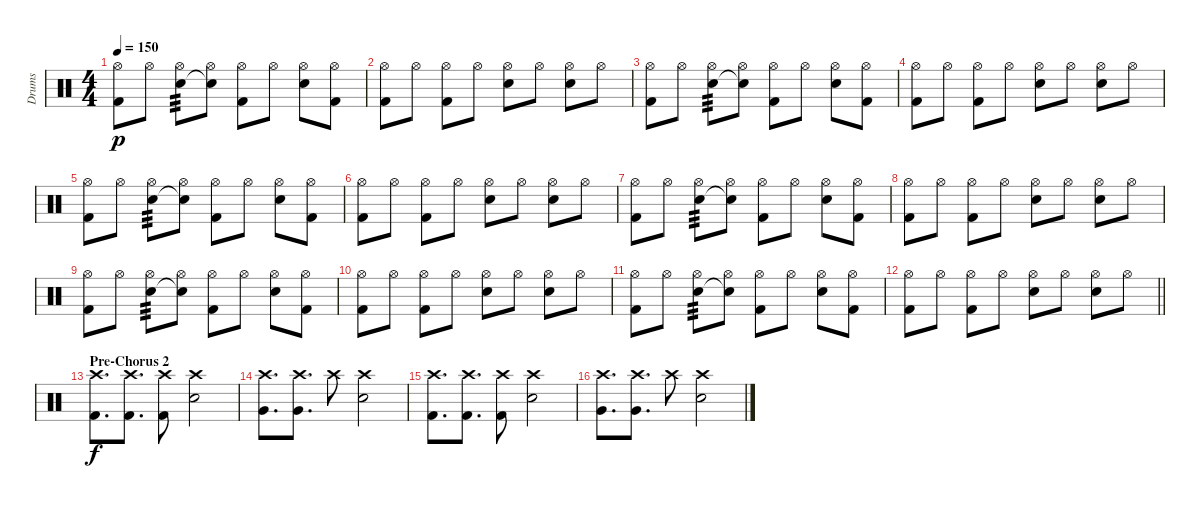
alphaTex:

\track ("Drums" "Drums") {instrument percussion}
\staff {score}
\articulation defaults
\ts (4 4)
\tempo 150
\clef neutral
\ks c
("Hi-Hat (open)" "Kick (hit) 2").8{dy p} "Hi-Hat (open)".8 ("Hi-Hat (open)" "Electric Snare (hit)").8{tp 3} ("Hi-Hat (open)" "Electric Snare (hit)"{t}).8 ("Hi-Hat (open)" "Kick (hit) 2").8 "Hi-Hat (open)".8 ("Hi-Hat (open)" "Electric Snare (hit)").8 ("Hi-Hat (open)" "Kick (hit) 2").8 |
("Hi-Hat (open)" "Kick (hit) 2").8 "Hi-Hat (open)".8 ("Hi-Hat (open)" "Kick (hit) 2").8 "Hi-Hat (open)".8 ("Hi-Hat (open)" "Electric Snare (hit)").8 "Hi-Hat (open)".8 ("Hi-Hat (open)" "Electric Snare (hit)").8 "Hi-Hat (open)".8 |
("Hi-Hat (open)" "Kick (hit) 2").8 "Hi-Hat (open)".8 ("Hi-Hat (open)" "Electric Snare (hit)").8{tp 3} ("Hi-Hat (open)" "Electric Snare (hit)"{t}).8 ("Hi-Hat (open)" "Kick (hit) 2").8 "Hi-Hat (open)".8 ("Hi-Hat (open)" "Electric Snare (hit)").8 ("Hi-Hat (open)" "Kick (hit) 2").8 |
("Hi-Hat (open)" "Kick (hit) 2").8 "Hi-Hat (open)".8 ("Hi-Hat (open)" "Kick (hit) 2").8 "Hi-Hat (open)".8 ("Hi-Hat (open)" "Electric Snare (hit)").8 "Hi-Hat (open)".8 ("Hi-Hat (open)" "Electric Snare (hit)").8 "Hi-Hat (open)".8 |
("Hi-Hat (open)" "Kick (hit) 2").8 "Hi-Hat (open)".8 ("Hi-Hat (open)" "Electric Snare (hit)").8{tp 3} ("Hi-Hat (open)" "Electric Snare (hit)"{t}).8 ("Hi-Hat (open)" "Kick (hit) 2").8 "Hi-Hat (open)".8 ("Hi-Hat (open)" "Electric Snare (hit)").8 ("Hi-Hat (open)" "Kick (hit) 2").8 |
("Hi-Hat (open)" "Kick (hit) 2").8 "Hi-Hat (open)".8 ("Hi-Hat (open)" "Kick (hit) 2").8 "Hi-Hat (open)".8 ("Hi-Hat (open)" "Electric Snare (hit)").8 "Hi-Hat (open)".8 ("Hi-Hat (open)" "Electric Snare (hit)").8 "Hi-Hat (open)".8 |
("Hi-Hat (open)" "Kick (hit) 2").8 "Hi-Hat (open)".8 ("Hi-Hat (open)" "Electric Snare (hit)").8{tp 3} ("Hi-Hat (open)" "Electric Snare (hit)"{t}).8 ("Hi-Hat (open)" "Kick (hit) 2").8 "Hi-Hat (open)".8 ("Hi-Hat (open)" "Electric Snare (hit)").8 ("Hi-Hat (open)" "Kick (hit) 2").8 |
("Hi-Hat (open)" "Kick (hit) 2").8 "Hi-Hat (open)".8 ("Hi-Hat (open)" "Kick (hit) 2").8 "Hi-Hat (open)".8 ("Hi-Hat (open)" "Electric Snare (hit)").8 "Hi-Hat (open)".8 ("Hi-Hat (open)" "Electric Snare (hit)").8 "Hi-Hat (open)".8 |
("Hi-Hat (open)" "Kick (hit) 2").8 "Hi-Hat (open)".8 ("Hi-Hat (open)" "Electric Snare (hit)").8{tp 3} ("Hi-Hat (open)" "Electric Snare (hit)"{t}).8 ("Hi-Hat (open)" "Kick (hit) 2").8 "Hi-Hat (open)".8 ("Hi-Hat (open)" "Electric Snare (hit)").8 ("Hi-Hat (open)" "Kick (hit) 2").8 |
("Hi-Hat (open)" "Kick (hit) 2").8 "Hi-Hat (open)".8 ("Hi-Hat (open)" "Kick (hit) 2").8 "Hi-Hat (open)".8 ("Hi-Hat (open)" "Electric Snare (hit)").8 "Hi-Hat (open)".8 ("Hi-Hat (open)" "Electric Snare (hit)").8 "Hi-Hat (open)".8 |
("Hi-Hat (open)" "Kick (hit) 2").8 "Hi-Hat (open)".8 ("Hi-Hat (open)" "Electric Snare (hit)").8{tp 3} ("Hi-Hat (open)" "Electric Snare (hit)"{t}).8 ("Hi-Hat (open)" "Kick (hit) 2").8 "Hi-Hat (open)".8 ("Hi-Hat (open)" "Electric Snare (hit)").8 ("Hi-Hat (open)" "Kick (hit) 2").8 |
\barLineRight lightlight
("Hi-Hat (open)" "Kick (hit) 2").8 "Hi-Hat (open)".8 ("Hi-Hat (open)" "Kick (hit) 2").8 "Hi-Hat (open)".8 ("Hi-Hat (open)" "Electric Snare (hit)").8 "Hi-Hat (open)".8 ("Hi-Hat (open)" "Electric Snare (hit)").8 "Hi-Hat (open)".8 |
\section ("" "Pre-Chorus 2")
("Crash high (hit)" "Kick (hit) 2").8{d dy f} ("Crash high (hit)" "Kick (hit) 2").8{d} ("Crash high (hit)" "Kick (hit) 2").8 ("Crash high (hit)" "Electric Snare (hit)").2 |
("Crash high (hit)" "Very Low Tom (hit)").8{d} ("Crash high (hit)" "Very Low Tom (hit)").8{d} "Crash high (hit)".8 ("Crash high (hit)" "Electric Snare (hit)").2 |
("Crash high (hit)" "Kick (hit) 2").8{d} ("Crash high (hit)" "Kick (hit) 2").8{d} ("Crash high (hit)" "Kick (hit) 2").8 ("Crash high (hit)" "Electric Snare (hit)").2 |
("Crash high (hit)" "Very Low Tom (hit)").8{d} ("Crash high (hit)" "Very Low Tom (hit)").8{d} "Crash high (hit)".8 ("Crash high (hit)" "Electric Snare (hit)").2
